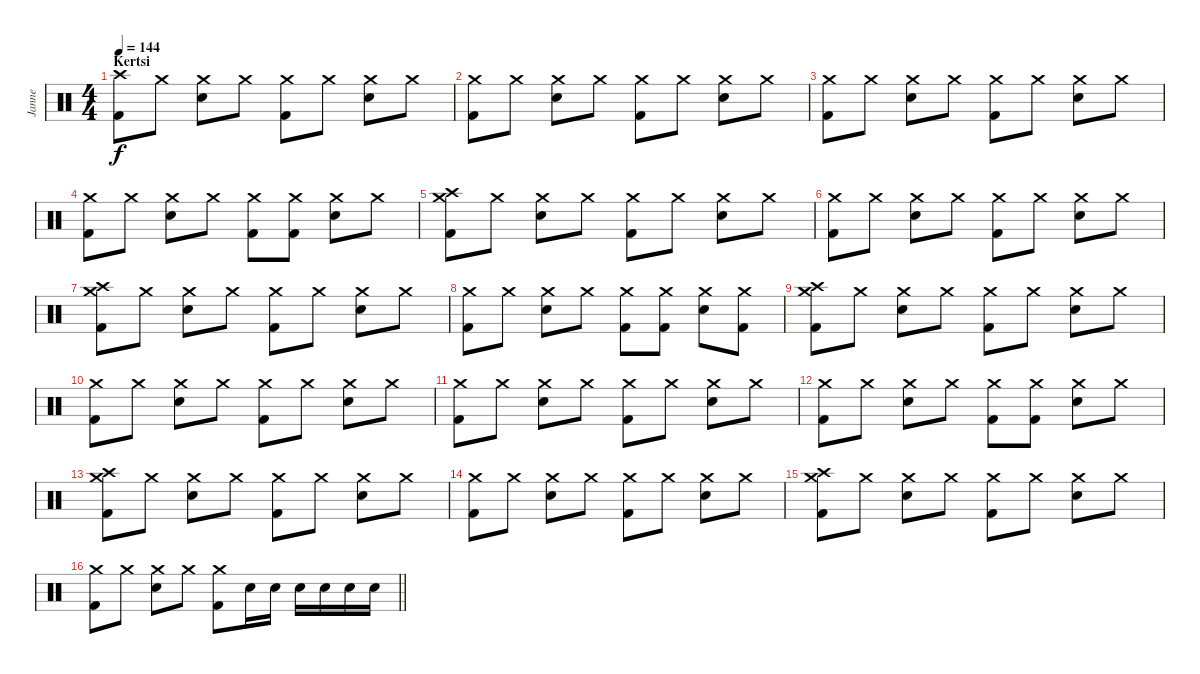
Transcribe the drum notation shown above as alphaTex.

\track ("Janne" "Janne") {instrument percussion}
\staff {score}
\articulation defaults
\ts (4 4)
\section ("" "Kertsi")
\tempo 144
\clef neutral
\ks c
("Crash high (hit)" "Kick (hit) 2").8{dy f} "Crash medium (hit)".8 ("Crash medium (hit)" "Electric Snare (hit)").8 "Crash medium (hit)".8 ("Crash medium (hit)" "Kick (hit) 2").8 "Crash medium (hit)".8 ("Crash medium (hit)" "Electric Snare (hit)").8 "Crash medium (hit)".8 |
("Crash medium (hit)" "Kick (hit) 2").8 "Crash medium (hit)".8 ("Crash medium (hit)" "Electric Snare (hit)").8 "Crash medium (hit)".8 ("Crash medium (hit)" "Kick (hit) 2").8 "Crash medium (hit)".8 ("Crash medium (hit)" "Electric Snare (hit)").8 "Crash medium (hit)".8 |
("Crash medium (hit)" "Kick (hit) 2").8 "Crash medium (hit)".8 ("Crash medium (hit)" "Electric Snare (hit)").8 "Crash medium (hit)".8 ("Crash medium (hit)" "Kick (hit) 2").8 "Crash medium (hit)".8 ("Crash medium (hit)" "Electric Snare (hit)").8 "Crash medium (hit)".8 |
("Crash medium (hit)" "Kick (hit) 2").8 "Crash medium (hit)".8 ("Crash medium (hit)" "Electric Snare (hit)").8 "Crash medium (hit)".8 ("Crash medium (hit)" "Kick (hit) 2").8 ("Crash medium (hit)" "Kick (hit) 2").8 ("Crash medium (hit)" "Electric Snare (hit)").8 "Crash medium (hit)".8 |
("Crash medium (hit)" "Crash high (hit)" "Kick (hit) 2").8 "Crash medium (hit)".8 ("Crash medium (hit)" "Electric Snare (hit)").8 "Crash medium (hit)".8 ("Crash medium (hit)" "Kick (hit) 2").8 "Crash medium (hit)".8 ("Crash medium (hit)" "Electric Snare (hit)").8 "Crash medium (hit)".8 |
("Crash medium (hit)" "Kick (hit) 2").8 "Crash medium (hit)".8 ("Crash medium (hit)" "Electric Snare (hit)").8 "Crash medium (hit)".8 ("Crash medium (hit)" "Kick (hit) 2").8 "Crash medium (hit)".8 ("Crash medium (hit)" "Electric Snare (hit)").8 "Crash medium (hit)".8 |
("Crash medium (hit)" "Crash high (hit)" "Kick (hit) 2").8 "Crash medium (hit)".8 ("Crash medium (hit)" "Electric Snare (hit)").8 "Crash medium (hit)".8 ("Crash medium (hit)" "Kick (hit) 2").8 "Crash medium (hit)".8 ("Crash medium (hit)" "Electric Snare (hit)").8 "Crash medium (hit)".8 |
("Crash medium (hit)" "Kick (hit) 2").8 "Crash medium (hit)".8 ("Crash medium (hit)" "Electric Snare (hit)").8 "Crash medium (hit)".8 ("Crash medium (hit)" "Kick (hit) 2").8 ("Crash medium (hit)" "Kick (hit) 2").8 ("Crash medium (hit)" "Electric Snare (hit)").8 ("Crash medium (hit)" "Kick (hit) 2").8 |
("Crash high (hit)" "Crash medium (hit)" "Kick (hit) 2").8 "Crash medium (hit)".8 ("Crash medium (hit)" "Electric Snare (hit)").8 "Crash medium (hit)".8 ("Crash medium (hit)" "Kick (hit) 2").8 "Crash medium (hit)".8 ("Crash medium (hit)" "Electric Snare (hit)").8 "Crash medium (hit)".8 |
("Crash medium (hit)" "Kick (hit) 2").8 "Crash medium (hit)".8 ("Crash medium (hit)" "Electric Snare (hit)").8 "Crash medium (hit)".8 ("Crash medium (hit)" "Kick (hit) 2").8 "Crash medium (hit)".8 ("Crash medium (hit)" "Electric Snare (hit)").8 "Crash medium (hit)".8 |
("Crash medium (hit)" "Kick (hit) 2").8 "Crash medium (hit)".8 ("Crash medium (hit)" "Electric Snare (hit)").8 "Crash medium (hit)".8 ("Crash medium (hit)" "Kick (hit) 2").8 "Crash medium (hit)".8 ("Crash medium (hit)" "Electric Snare (hit)").8 "Crash medium (hit)".8 |
("Crash medium (hit)" "Kick (hit) 2").8 "Crash medium (hit)".8 ("Crash medium (hit)" "Electric Snare (hit)").8 "Crash medium (hit)".8 ("Crash medium (hit)" "Kick (hit) 2").8 ("Crash medium (hit)" "Kick (hit) 2").8 ("Crash medium (hit)" "Electric Snare (hit)").8 "Crash medium (hit)".8 |
("Crash medium (hit)" "Crash high (hit)" "Kick (hit) 2").8 "Crash medium (hit)".8 ("Crash medium (hit)" "Electric Snare (hit)").8 "Crash medium (hit)".8 ("Crash medium (hit)" "Kick (hit) 2").8 "Crash medium (hit)".8 ("Crash medium (hit)" "Electric Snare (hit)").8 "Crash medium (hit)".8 |
("Crash medium (hit)" "Kick (hit) 2").8 "Crash medium (hit)".8 ("Crash medium (hit)" "Electric Snare (hit)").8 "Crash medium (hit)".8 ("Crash medium (hit)" "Kick (hit) 2").8 "Crash medium (hit)".8 ("Crash medium (hit)" "Electric Snare (hit)").8 "Crash medium (hit)".8 |
("Crash medium (hit)" "Crash high (hit)" "Kick (hit) 2").8 "Crash medium (hit)".8 ("Crash medium (hit)" "Electric Snare (hit)").8 "Crash medium (hit)".8 ("Crash medium (hit)" "Kick (hit) 2").8 "Crash medium (hit)".8 ("Crash medium (hit)" "Electric Snare (hit)").8 "Crash medium (hit)".8 |
\barLineRight lightlight
("Crash medium (hit)" "Kick (hit) 2").8 "Crash medium (hit)".8 ("Crash medium (hit)" "Electric Snare (hit)").8 "Crash medium (hit)".8 ("Crash medium (hit)" "Kick (hit) 2").8 "Electric Snare (hit)".16 "Electric Snare (hit)".16 "Electric Snare (hit)".16 "Electric Snare (hit)".16 "Electric Snare (hit)".16 "Electric Snare (hit)".16
